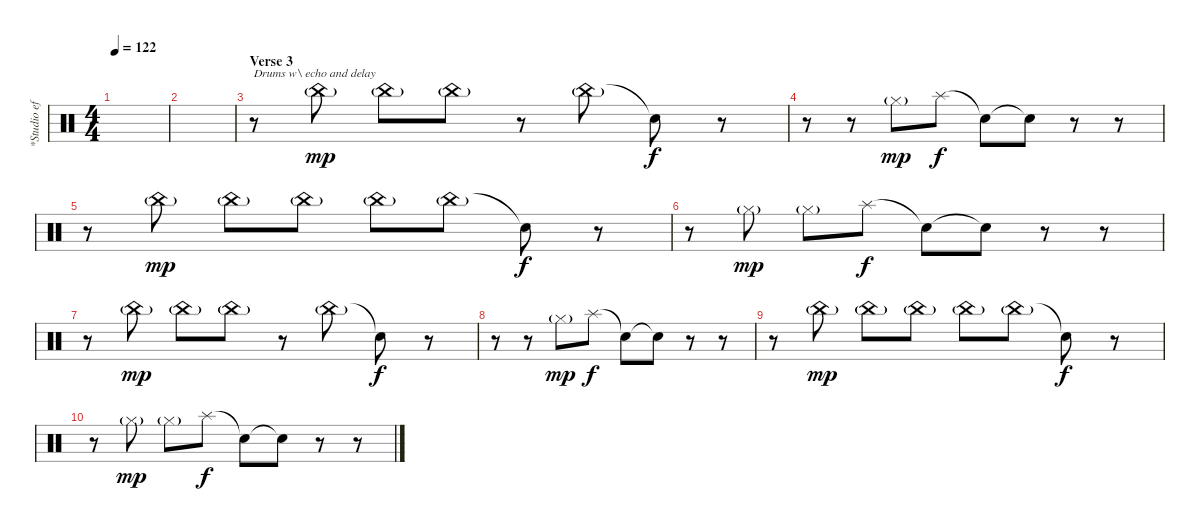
\track ("*Studio effects (Sampled drums)" "*Studio ef") {instrument percussion}
\staff {score}
\articulation defaults
\ts (4 4)
\tempo 122
\clef neutral
\ks c
|
|
\section ("" "Verse 3")
r.8{txt "Drums w\\ echo and delay"} "China (hit)"{g}.8{dy mp balance 4} "China (hit)"{g}.8{balance 4} "China (hit)"{g}.8{balance 4} r.8 "China (hit)"{g}.8{balance 4} "Snare (hit)"{t}.8{dy f} r.8 |
r.8 r.8 "Hi-Hat (closed)"{g}.8{dy mp} "Splash (hit)".8{dy f balance 12} "Snare (hit)"{t}.8 "Snare (hit)"{t}.8 r.8 r.8 |
r.8 "China (hit)"{g}.8{dy mp balance 4} "China (hit)"{g}.8{balance 4} "China (hit)"{g}.8{balance 4} "China (hit)"{g}.8{balance 4} "China (hit)"{g}.8{balance 4} "Snare (hit)"{t}.8{dy f} r.8 |
r.8 "Hi-Hat (closed)"{g}.8{dy mp} "Hi-Hat (closed)"{g}.8 "Splash (hit)".8{dy f balance 12} "Snare (hit)"{t}.8 "Snare (hit)"{t}.8 r.8 r.8 |
r.8 "China (hit)"{g}.8{dy mp balance 4} "China (hit)"{g}.8{balance 4} "China (hit)"{g}.8{balance 4} r.8 "China (hit)"{g}.8{balance 4} "Snare (hit)"{t}.8{dy f} r.8 |
r.8 r.8 "Hi-Hat (closed)"{g}.8{dy mp} "Splash (hit)".8{dy f balance 12} "Snare (hit)"{t}.8 "Snare (hit)"{t}.8 r.8 r.8 |
r.8 "China (hit)"{g}.8{dy mp balance 4} "China (hit)"{g}.8{balance 4} "China (hit)"{g}.8{balance 4} "China (hit)"{g}.8{balance 4} "China (hit)"{g}.8{balance 4} "Snare (hit)"{t}.8{dy f} r.8 |
r.8 "Hi-Hat (closed)"{g}.8{dy mp} "Hi-Hat (closed)"{g}.8 "Splash (hit)".8{dy f balance 12} "Snare (hit)"{t}.8 "Snare (hit)"{t}.8 r.8 r.8
